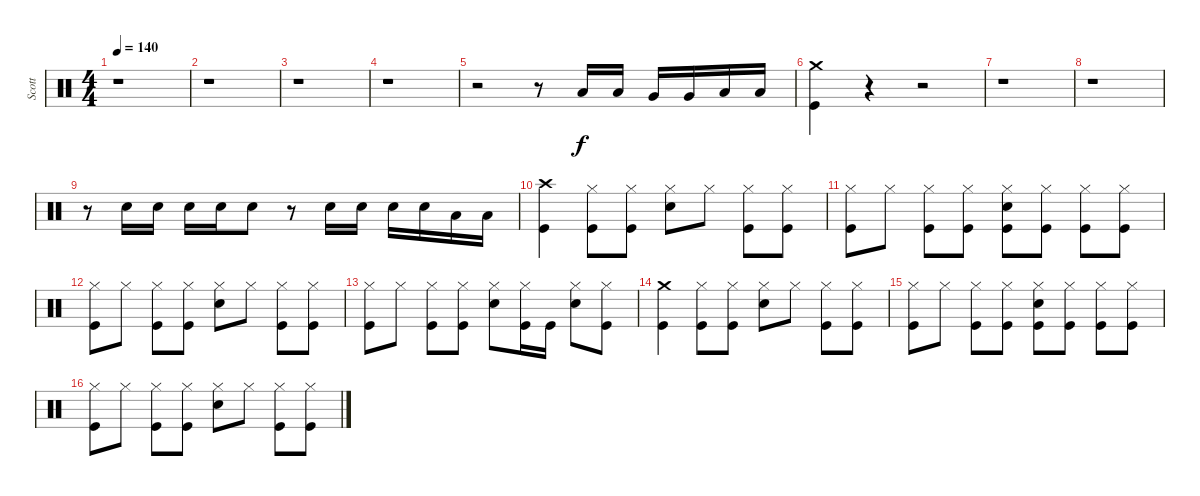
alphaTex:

\track ("Scott" "Scott") {instrument percussion}
\staff {score}
\articulation defaults
\ts (4 4)
\tempo 140
\clef neutral
\ks c
r.1{dy f} |
r.1 |
r.1 |
r.1 |
r.2 r.8 "Low Tom (hit)".16 "Low Tom (hit)".16 "Very Low Tom (hit)".16 "Very Low Tom (hit)".16 "Low Floor Tom (hit)".16 "Low Floor Tom (hit)".16 |
("Kick (hit)" "Crash medium (hit)").4 r.4 r.2 |
r.1 |
r.1 |
r.8 "Snare (hit) 2".16 "Snare (hit) 2".16 "Snare (hit) 2".16 "Snare (hit) 2".16 "Snare (hit) 2".8 r.8 "Snare (hit) 2".16 "Snare (hit) 2".16 "Snare (hit) 2".16 "Snare (hit) 2".16 "Low Tom (hit)".16 "Low Tom (hit)".16 |
("Kick (hit)" "Crash high (hit)").4 ("Kick (hit)" "Hi-Hat (closed)").8 ("Kick (hit)" "Hi-Hat (closed)").8 ("Snare (hit) 2" "Hi-Hat (closed)").8 "Hi-Hat (closed)".8 ("Kick (hit)" "Hi-Hat (closed)").8 ("Kick (hit)" "Hi-Hat (closed)").8 |
("Kick (hit)" "Hi-Hat (closed)").8 "Hi-Hat (closed)".8 ("Kick (hit)" "Hi-Hat (closed)").8 ("Kick (hit)" "Hi-Hat (closed)").8 ("Kick (hit)" "Snare (hit) 2" "Hi-Hat (closed)").8 ("Kick (hit)" "Hi-Hat (closed)").8 ("Kick (hit)" "Hi-Hat (closed)").8 ("Kick (hit)" "Hi-Hat (closed)").8 |
("Kick (hit)" "Hi-Hat (closed)").8 "Hi-Hat (closed)".8 ("Kick (hit)" "Hi-Hat (closed)").8 ("Kick (hit)" "Hi-Hat (closed)").8 ("Snare (hit) 2" "Hi-Hat (closed)").8 "Hi-Hat (closed)".8 ("Kick (hit)" "Hi-Hat (closed)").8 ("Kick (hit)" "Hi-Hat (closed)").8 |
("Kick (hit)" "Hi-Hat (closed)").8 "Hi-Hat (closed)".8 ("Kick (hit)" "Hi-Hat (closed)").8 ("Kick (hit)" "Hi-Hat (closed)").8 ("Snare (hit) 2" "Hi-Hat (closed)").8 ("Kick (hit)" "Hi-Hat (closed)").16 "Kick (hit)".16 ("Snare (hit) 2" "Hi-Hat (closed)").8 ("Kick (hit)" "Hi-Hat (closed)").8 |
("Kick (hit)" "Crash medium (hit)").4 ("Kick (hit)" "Hi-Hat (closed)").8 ("Kick (hit)" "Hi-Hat (closed)").8 ("Snare (hit) 2" "Hi-Hat (closed)").8 "Hi-Hat (closed)".8 ("Kick (hit)" "Hi-Hat (closed)").8 ("Kick (hit)" "Hi-Hat (closed)").8 |
("Kick (hit)" "Hi-Hat (closed)").8 "Hi-Hat (closed)".8 ("Kick (hit)" "Hi-Hat (closed)").8 ("Kick (hit)" "Hi-Hat (closed)").8 ("Kick (hit)" "Snare (hit) 2" "Hi-Hat (closed)").8 ("Kick (hit)" "Hi-Hat (closed)").8 ("Kick (hit)" "Hi-Hat (closed)").8 ("Kick (hit)" "Hi-Hat (closed)").8 |
("Kick (hit)" "Hi-Hat (closed)").8 "Hi-Hat (closed)".8 ("Kick (hit)" "Hi-Hat (closed)").8 ("Kick (hit)" "Hi-Hat (closed)").8 ("Snare (hit) 2" "Hi-Hat (closed)").8 "Hi-Hat (closed)".8 ("Kick (hit)" "Hi-Hat (closed)").8 ("Kick (hit)" "Hi-Hat (closed)").8
